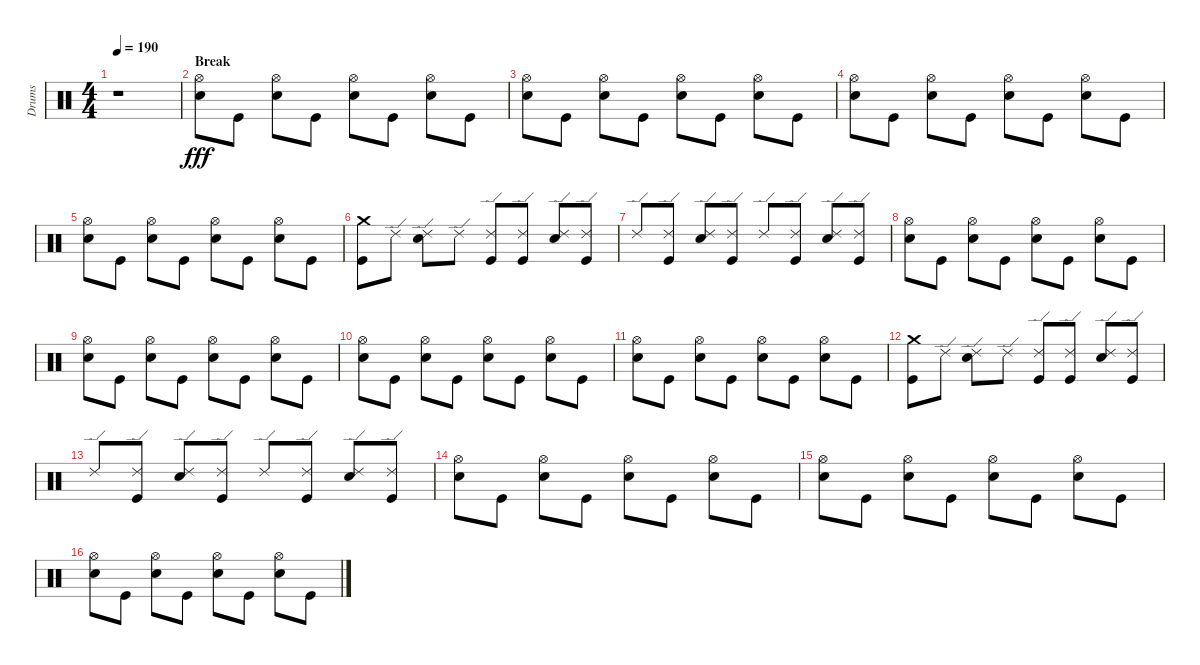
\track ("Drums" "Drums") {instrument percussion}
\staff {score}
\articulation defaults
\ts (4 4)
\tempo 190
\clef neutral
\ks c
r.1{dy fff} |
\section ("" "Break")
("Hi-Hat (open)" "Snare (hit) 2").8 "Kick (hit)".8 ("Hi-Hat (open)" "Snare (hit) 2").8 "Kick (hit)".8 ("Hi-Hat (open)" "Snare (hit) 2").8 "Kick (hit)".8 ("Hi-Hat (open)" "Snare (hit) 2").8 "Kick (hit)".8 |
("Hi-Hat (open)" "Snare (hit) 2").8 "Kick (hit)".8 ("Hi-Hat (open)" "Snare (hit) 2").8 "Kick (hit)".8 ("Hi-Hat (open)" "Snare (hit) 2").8 "Kick (hit)".8 ("Hi-Hat (open)" "Snare (hit) 2").8 "Kick (hit)".8 |
("Hi-Hat (open)" "Snare (hit) 2").8 "Kick (hit)".8 ("Hi-Hat (open)" "Snare (hit) 2").8 "Kick (hit)".8 ("Hi-Hat (open)" "Snare (hit) 2").8 "Kick (hit)".8 ("Hi-Hat (open)" "Snare (hit) 2").8 "Kick (hit)".8 |
("Hi-Hat (open)" "Snare (hit) 2").8 "Kick (hit)".8 ("Hi-Hat (open)" "Snare (hit) 2").8 "Kick (hit)".8 ("Hi-Hat (open)" "Snare (hit) 2").8 "Kick (hit)".8 ("Hi-Hat (open)" "Snare (hit) 2").8 "Kick (hit)".8 |
("Crash medium (hit)" "Kick (hit)").8 "Ride (edge) 2".8 ("Ride (edge) 2" "Snare (hit) 2").8 "Ride (edge) 2".8 ("Ride (edge) 2" "Kick (hit)").8 ("Ride (edge) 2" "Kick (hit)").8 ("Ride (edge) 2" "Snare (hit) 2").8 ("Ride (edge) 2" "Kick (hit)").8 |
"Ride (edge) 2".8 ("Ride (edge) 2" "Kick (hit)").8 ("Ride (edge) 2" "Snare (hit) 2").8 ("Ride (edge) 2" "Kick (hit)").8 "Ride (edge) 2".8 ("Ride (edge) 2" "Kick (hit)").8 ("Ride (edge) 2" "Snare (hit) 2").8 ("Ride (edge) 2" "Kick (hit)").8 |
("Hi-Hat (open)" "Snare (hit) 2").8 "Kick (hit)".8 ("Hi-Hat (open)" "Snare (hit) 2").8 "Kick (hit)".8 ("Hi-Hat (open)" "Snare (hit) 2").8 "Kick (hit)".8 ("Hi-Hat (open)" "Snare (hit) 2").8 "Kick (hit)".8 |
("Hi-Hat (open)" "Snare (hit) 2").8 "Kick (hit)".8 ("Hi-Hat (open)" "Snare (hit) 2").8 "Kick (hit)".8 ("Hi-Hat (open)" "Snare (hit) 2").8 "Kick (hit)".8 ("Hi-Hat (open)" "Snare (hit) 2").8 "Kick (hit)".8 |
("Hi-Hat (open)" "Snare (hit) 2").8 "Kick (hit)".8 ("Hi-Hat (open)" "Snare (hit) 2").8 "Kick (hit)".8 ("Hi-Hat (open)" "Snare (hit) 2").8 "Kick (hit)".8 ("Hi-Hat (open)" "Snare (hit) 2").8 "Kick (hit)".8 |
("Hi-Hat (open)" "Snare (hit) 2").8 "Kick (hit)".8 ("Hi-Hat (open)" "Snare (hit) 2").8 "Kick (hit)".8 ("Hi-Hat (open)" "Snare (hit) 2").8 "Kick (hit)".8 ("Hi-Hat (open)" "Snare (hit) 2").8 "Kick (hit)".8 |
("Crash medium (hit)" "Kick (hit)").8 "Ride (edge) 2".8 ("Ride (edge) 2" "Snare (hit) 2").8 "Ride (edge) 2".8 ("Ride (edge) 2" "Kick (hit)").8 ("Ride (edge) 2" "Kick (hit)").8 ("Ride (edge) 2" "Snare (hit) 2").8 ("Ride (edge) 2" "Kick (hit)").8 |
"Ride (edge) 2".8 ("Ride (edge) 2" "Kick (hit)").8 ("Ride (edge) 2" "Snare (hit) 2").8 ("Ride (edge) 2" "Kick (hit)").8 "Ride (edge) 2".8 ("Ride (edge) 2" "Kick (hit)").8 ("Ride (edge) 2" "Snare (hit) 2").8 ("Ride (edge) 2" "Kick (hit)").8 |
("Hi-Hat (open)" "Snare (hit) 2").8 "Kick (hit)".8 ("Hi-Hat (open)" "Snare (hit) 2").8 "Kick (hit)".8 ("Hi-Hat (open)" "Snare (hit) 2").8 "Kick (hit)".8 ("Hi-Hat (open)" "Snare (hit) 2").8 "Kick (hit)".8 |
("Hi-Hat (open)" "Snare (hit) 2").8 "Kick (hit)".8 ("Hi-Hat (open)" "Snare (hit) 2").8 "Kick (hit)".8 ("Hi-Hat (open)" "Snare (hit) 2").8 "Kick (hit)".8 ("Hi-Hat (open)" "Snare (hit) 2").8 "Kick (hit)".8 |
("Hi-Hat (open)" "Snare (hit) 2").8 "Kick (hit)".8 ("Hi-Hat (open)" "Snare (hit) 2").8 "Kick (hit)".8 ("Hi-Hat (open)" "Snare (hit) 2").8 "Kick (hit)".8 ("Hi-Hat (open)" "Snare (hit) 2").8 "Kick (hit)".8
